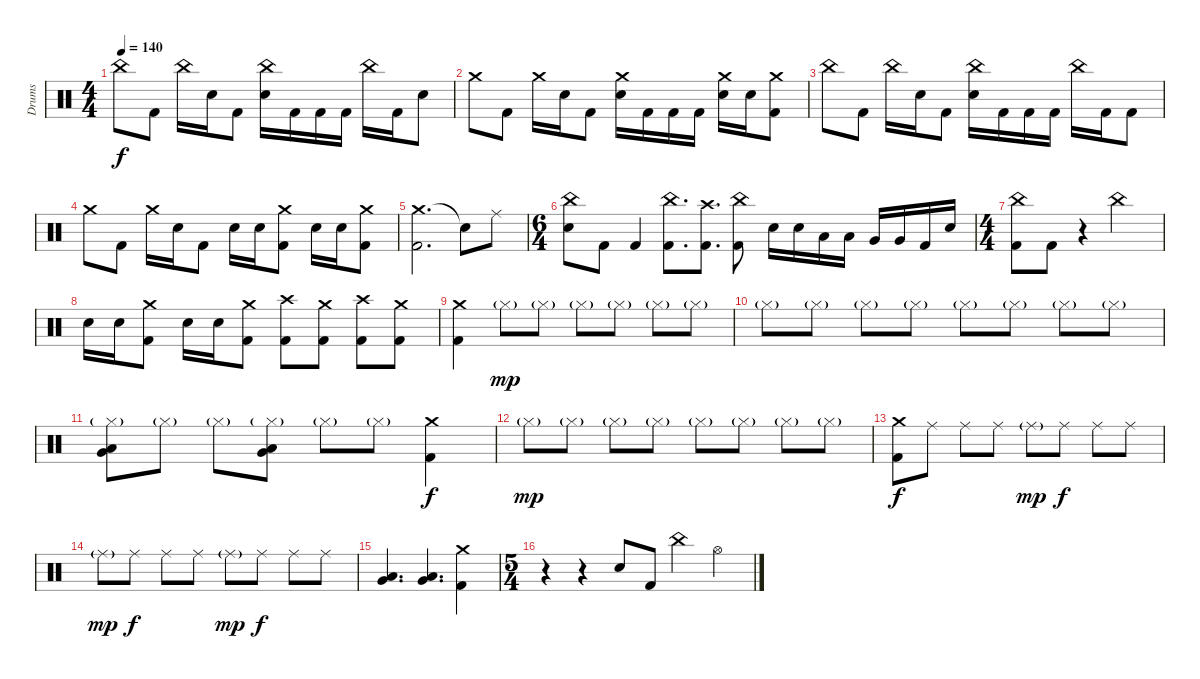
\track ("Drums" "Drums") {instrument percussion}
\staff {score}
\articulation defaults
\ts (4 4)
\tempo 140
\clef neutral
\ks c "China (hit)".8{dy f} "Kick (hit) 2".8 "China (hit)".16 "Electric Snare (hit)".16 "Kick (hit) 2".8
("China (hit)" "Electric Snare (hit)").16 "Kick (hit) 2".16 "Kick (hit) 2".16 "Kick (hit) 2".16 "China (hit)".16 "Kick (hit) 2".16 "Electric Snare (hit)".8 |
"Crash medium (hit)".8 "Kick (hit) 2".8 "Crash medium (hit)".16 "Electric Snare (hit)".16 "Kick (hit) 2".8 ("Crash medium (hit)" "Electric Snare (hit)").16 "Kick (hit) 2".16 "Kick (hit) 2".16 "Kick (hit) 2".16 ("Crash medium (hit)" "Electric Snare (hit)").16 "Electric Snare (hit)".16 ("Crash medium (hit)" "Kick (hit) 2").8 |
"China (hit)".8 "Kick (hit) 2".8 "China (hit)".16 "Electric Snare (hit)".16 "Kick (hit) 2".8 ("China (hit)" "Electric Snare (hit)").16 "Kick (hit) 2".16 "Kick (hit) 2".16 "Kick (hit) 2".16 "China (hit)".16 "Kick (hit) 2".16 "Kick (hit) 2".8 |
"Crash medium (hit)".8 "Kick (hit) 2".8 "Crash medium (hit)".16 "Electric Snare (hit)".16 "Kick (hit) 2".8 "Electric Snare (hit)".16 "Electric Snare (hit)".16 ("Crash medium (hit)" "Kick (hit) 2").8 "Electric Snare (hit)".16 "Electric Snare (hit)".16 ("Crash medium (hit)" "Kick (hit) 2").8 |
("Crash medium (hit)" "Kick (hit) 2").2{d} "Snare (hit)"{t}.8 "Ride (middle)".8 |
\ts (6 4)
("China (hit)" "Electric Snare (hit)").8 "Kick (hit) 2".8 "Kick (hit) 2".4 ("China (hit)" "Kick (hit) 2").8{d} ("Crash high (hit)" "Kick (hit) 2").8{d} ("China (hit)" "Kick (hit) 2").8 "Electric Snare (hit)".16 "Electric Snare (hit)".16 "Low Tom (hit)".16 "Low Tom (hit)".16 "Very Low Tom (hit)".16 "Very Low Tom (hit)".16 "Kick (hit) 2".16 "Electric Snare (hit)".16 |
\ts (4 4)
("China (hit)" "Kick (hit) 2").8 "Kick (hit) 2".8 r.4 "China (hit)".2 |
"Electric Snare (hit)".16 "Electric Snare (hit)".16 ("Crash medium (hit)" "Kick (hit) 2").8 "Electric Snare (hit)".16 "Electric Snare (hit)".16 ("Crash medium (hit)" "Kick (hit) 2").8 ("Crash high (hit)" "Kick (hit) 2").8 ("Crash medium (hit)" "Kick (hit) 2").8 ("Crash high (hit)" "Kick (hit) 2").8 ("Crash medium (hit)" "Kick (hit) 2").8 |
("Crash medium (hit)" "Kick (hit) 2").4 "Hi-Hat (closed)"{g}.8{dy mp} "Hi-Hat (closed)"{g}.8 "Hi-Hat (closed)"{g}.8 "Hi-Hat (closed)"{g}.8 "Hi-Hat (closed)"{g}.8 "Hi-Hat (closed)"{g}.8 |
"Hi-Hat (closed)"{g}.8 "Hi-Hat (closed)"{g}.8 "Hi-Hat (closed)"{g}.8 "Hi-Hat (closed)"{g}.8 "Hi-Hat (closed)"{g}.8 "Hi-Hat (closed)"{g}.8 "Hi-Hat (closed)"{g}.8 "Hi-Hat (closed)"{g}.8 |
("Hi-Hat (closed)"{g} "Very Low Tom (hit)" "Low Tom (hit)").8 "Hi-Hat (closed)"{g}.8 "Hi-Hat (closed)"{g}.8 ("Hi-Hat (closed)"{g} "Very Low Tom (hit)" "Low Tom (hit)").8 "Hi-Hat (closed)"{g}.8 "Hi-Hat (closed)"{g}.8 ("Crash medium (hit)" "Kick (hit) 2").4{dy f} |
"Hi-Hat (closed)"{g}.8{dy mp} "Hi-Hat (closed)"{g}.8 "Hi-Hat (closed)"{g}.8 "Hi-Hat (closed)"{g}.8 "Hi-Hat (closed)"{g}.8 "Hi-Hat (closed)"{g}.8 "Hi-Hat (closed)"{g}.8 "Hi-Hat (closed)"{g}.8 |
("Crash medium (hit)" "Kick (hit) 2").8{dy f} "Ride (middle)".8 "Ride (middle)".8 "Ride (middle)".8 "Ride (middle)"{g}.8{dy mp} "Ride (middle)".8{dy f} "Ride (middle)".8 "Ride (middle)".8 |
"Ride (middle)"{g}.8{dy mp} "Ride (middle)".8{dy f} "Ride (middle)".8 "Ride (middle)".8 "Ride (middle)"{g}.8{dy mp} "Ride (middle)".8{dy f} "Ride (middle)".8 "Ride (middle)".8 |
("Very Low Tom (hit)" "Low Tom (hit)").4{d} ("Very Low Tom (hit)" "Low Tom (hit)").4{d} ("Crash medium (hit)" "Kick (hit) 2").4 |
\ts (5 4)
r.4 r.4 "Electric Snare (hit)".8 "Kick (hit) 2".8 "China (hit)".4 "Hi-Hat (open)".4
